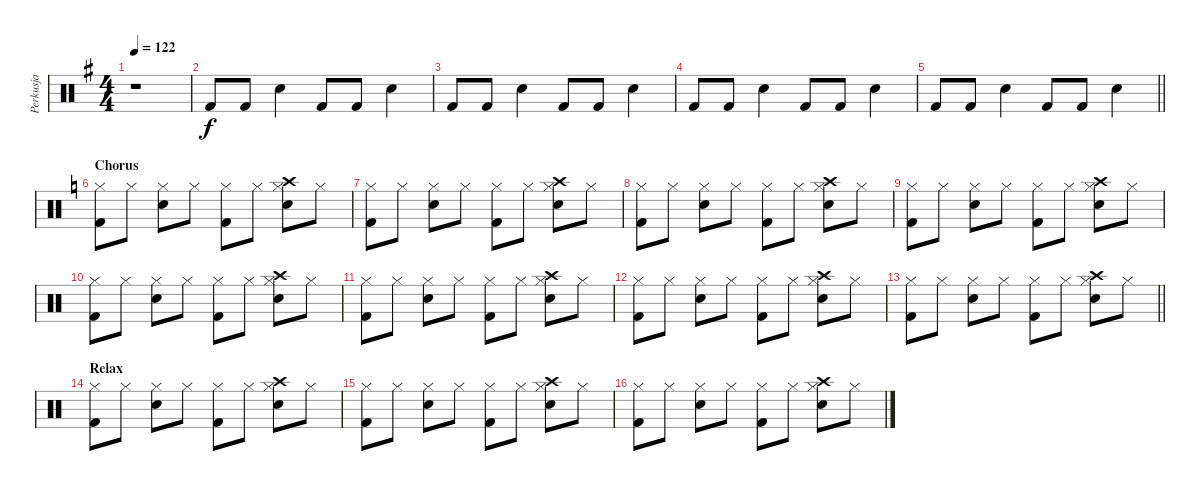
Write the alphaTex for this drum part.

\track ("Perkusja" "Perkusja") {instrument percussion}
\staff {score}
\articulation defaults
\ts (4 4)
\tempo 122
\clef neutral
\ks g
r.1{dy f} |
"Kick (hit) 2".8 "Kick (hit) 2".8 "Electric Snare (hit)".4 "Kick (hit) 2".8 "Kick (hit) 2".8 "Electric Snare (hit)".4 |
"Kick (hit) 2".8 "Kick (hit) 2".8 "Electric Snare (hit)".4 "Kick (hit) 2".8 "Kick (hit) 2".8 "Electric Snare (hit)".4 |
"Kick (hit) 2".8 "Kick (hit) 2".8 "Electric Snare (hit)".4 "Kick (hit) 2".8 "Kick (hit) 2".8 "Electric Snare (hit)".4 |
\barLineRight lightlight "Kick (hit) 2".8 "Kick (hit) 2".8 "Electric Snare (hit)".4 "Kick (hit) 2".8 "Kick (hit) 2".8 "Electric Snare (hit)".4
|
\section ("" "Chorus")
\ks c
("Hi-Hat (closed)" "Kick (hit) 2").8 "Hi-Hat (closed)".8 ("Hi-Hat (closed)" "Electric Snare (hit)").8 "Hi-Hat (closed)".8 ("Hi-Hat (closed)" "Kick (hit) 2").8 "Hi-Hat (closed)".8 ("Hi-Hat (closed)" "Electric Snare (hit)" "Crash high (hit)").8 "Hi-Hat (closed)".8 |
("Hi-Hat (closed)" "Kick (hit) 2").8 "Hi-Hat (closed)".8 ("Hi-Hat (closed)" "Electric Snare (hit)").8 "Hi-Hat (closed)".8 ("Hi-Hat (closed)" "Kick (hit) 2").8 "Hi-Hat (closed)".8 ("Hi-Hat (closed)" "Electric Snare (hit)" "Crash high (hit)").8 "Hi-Hat (closed)".8 |
("Hi-Hat (closed)" "Kick (hit) 2").8 "Hi-Hat (closed)".8 ("Hi-Hat (closed)" "Electric Snare (hit)").8 "Hi-Hat (closed)".8 ("Hi-Hat (closed)" "Kick (hit) 2").8 "Hi-Hat (closed)".8 ("Hi-Hat (closed)" "Electric Snare (hit)" "Crash high (hit)").8 "Hi-Hat (closed)".8 |
("Hi-Hat (closed)" "Kick (hit) 2").8 "Hi-Hat (closed)".8 ("Hi-Hat (closed)" "Electric Snare (hit)").8 "Hi-Hat (closed)".8 ("Hi-Hat (closed)" "Kick (hit) 2").8 "Hi-Hat (closed)".8 ("Hi-Hat (closed)" "Electric Snare (hit)" "Crash high (hit)").8 "Hi-Hat (closed)".8 |
("Hi-Hat (closed)" "Kick (hit) 2").8 "Hi-Hat (closed)".8 ("Hi-Hat (closed)" "Electric Snare (hit)").8 "Hi-Hat (closed)".8 ("Hi-Hat (closed)" "Kick (hit) 2").8 "Hi-Hat (closed)".8 ("Hi-Hat (closed)" "Electric Snare (hit)" "Crash high (hit)").8 "Hi-Hat (closed)".8 |
("Hi-Hat (closed)" "Kick (hit) 2").8 "Hi-Hat (closed)".8 ("Hi-Hat (closed)" "Electric Snare (hit)").8 "Hi-Hat (closed)".8 ("Hi-Hat (closed)" "Kick (hit) 2").8 "Hi-Hat (closed)".8 ("Hi-Hat (closed)" "Electric Snare (hit)" "Crash high (hit)").8 "Hi-Hat (closed)".8 |
("Hi-Hat (closed)" "Kick (hit) 2").8 "Hi-Hat (closed)".8 ("Hi-Hat (closed)" "Electric Snare (hit)").8 "Hi-Hat (closed)".8 ("Hi-Hat (closed)" "Kick (hit) 2").8 "Hi-Hat (closed)".8 ("Hi-Hat (closed)" "Electric Snare (hit)" "Crash high (hit)").8 "Hi-Hat (closed)".8 |
\barLineRight lightlight
("Hi-Hat (closed)" "Kick (hit) 2").8 "Hi-Hat (closed)".8 ("Hi-Hat (closed)" "Electric Snare (hit)").8 "Hi-Hat (closed)".8 ("Hi-Hat (closed)" "Kick (hit) 2").8 "Hi-Hat (closed)".8 ("Hi-Hat (closed)" "Electric Snare (hit)" "Crash high (hit)").8 "Hi-Hat (closed)".8 |
\section ("" "Relax")
("Hi-Hat (closed)" "Kick (hit) 2").8 "Hi-Hat (closed)".8 ("Hi-Hat (closed)" "Electric Snare (hit)").8 "Hi-Hat (closed)".8 ("Hi-Hat (closed)" "Kick (hit) 2").8 "Hi-Hat (closed)".8 ("Hi-Hat (closed)" "Electric Snare (hit)" "Crash high (hit)").8 "Hi-Hat (closed)".8 |
("Hi-Hat (closed)" "Kick (hit) 2").8 "Hi-Hat (closed)".8 ("Hi-Hat (closed)" "Electric Snare (hit)").8 "Hi-Hat (closed)".8 ("Hi-Hat (closed)" "Kick (hit) 2").8 "Hi-Hat (closed)".8 ("Hi-Hat (closed)" "Electric Snare (hit)" "Crash high (hit)").8 "Hi-Hat (closed)".8 |
("Hi-Hat (closed)" "Kick (hit) 2").8 "Hi-Hat (closed)".8 ("Hi-Hat (closed)" "Electric Snare (hit)").8 "Hi-Hat (closed)".8 ("Hi-Hat (closed)" "Kick (hit) 2").8 "Hi-Hat (closed)".8 ("Hi-Hat (closed)" "Electric Snare (hit)" "Crash high (hit)").8 "Hi-Hat (closed)".8
